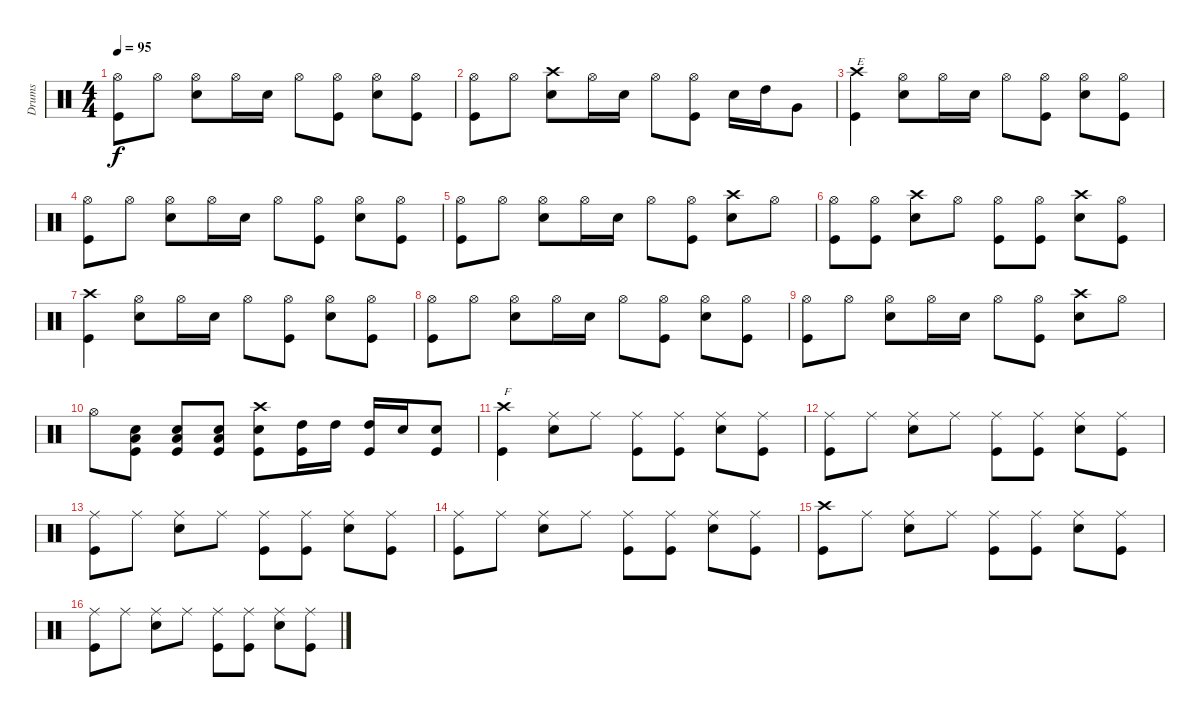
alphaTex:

\track ("Drums" "Drums") {instrument percussion}
\staff {score}
\articulation defaults
\ts (4 4)
\tempo 95
\clef neutral
\ks c
("Hi-Hat (open)" "Kick (hit)").8{dy f} "Hi-Hat (open)".8 ("Hi-Hat (open)" "Electric Snare (hit)").8 "Hi-Hat (open)".16 "Electric Snare (hit)".16 "Hi-Hat (open)".8 ("Hi-Hat (open)" "Kick (hit)").8 ("Hi-Hat (open)" "Electric Snare (hit)").8 ("Hi-Hat (open)" "Kick (hit)").8 |
("Hi-Hat (open)" "Kick (hit)").8 "Hi-Hat (open)".8 ("Crash high (hit)" "Electric Snare (hit)").8 "Hi-Hat (open)".16 "Electric Snare (hit)".16 "Hi-Hat (open)".8 ("Hi-Hat (open)" "Kick (hit)").8 "Electric Snare (hit)".16 "High Tom (hit)".16 "Very Low Tom (hit)".8 |
("Crash high (hit)" "Kick (hit)").4{txt "E"} ("Hi-Hat (open)" "Electric Snare (hit)").8 "Hi-Hat (open)".16 "Electric Snare (hit)".16 "Hi-Hat (open)".8 ("Hi-Hat (open)" "Kick (hit)").8 ("Hi-Hat (open)" "Electric Snare (hit)").8 ("Hi-Hat (open)" "Kick (hit)").8 |
("Hi-Hat (open)" "Kick (hit)").8 "Hi-Hat (open)".8 ("Hi-Hat (open)" "Electric Snare (hit)").8 "Hi-Hat (open)".16 "Electric Snare (hit)".16 "Hi-Hat (open)".8 ("Hi-Hat (open)" "Kick (hit)").8 ("Hi-Hat (open)" "Electric Snare (hit)").8 ("Hi-Hat (open)" "Kick (hit)").8 |
("Hi-Hat (open)" "Kick (hit)").8 "Hi-Hat (open)".8 ("Hi-Hat (open)" "Electric Snare (hit)").8 "Hi-Hat (open)".16 "Electric Snare (hit)".16 "Hi-Hat (open)".8 ("Hi-Hat (open)" "Kick (hit)").8 ("Crash high (hit)" "Electric Snare (hit)").8 "Hi-Hat (open)".8 |
("Hi-Hat (open)" "Kick (hit)").8 ("Hi-Hat (open)" "Kick (hit)").8 ("Crash high (hit)" "Electric Snare (hit)").8 "Hi-Hat (open)".8 ("Hi-Hat (open)" "Kick (hit)").8 ("Hi-Hat (open)" "Kick (hit)").8 ("Crash high (hit)" "Electric Snare (hit)").8 ("Hi-Hat (open)" "Kick (hit)").8 |
("Crash high (hit)" "Kick (hit)").4 ("Hi-Hat (open)" "Electric Snare (hit)").8 "Hi-Hat (open)".16 "Electric Snare (hit)".16 "Hi-Hat (open)".8 ("Hi-Hat (open)" "Kick (hit)").8 ("Hi-Hat (open)" "Electric Snare (hit)").8 ("Hi-Hat (open)" "Kick (hit)").8 |
("Hi-Hat (open)" "Kick (hit)").8 "Hi-Hat (open)".8 ("Hi-Hat (open)" "Electric Snare (hit)").8 "Hi-Hat (open)".16 "Electric Snare (hit)".16 "Hi-Hat (open)".8 ("Hi-Hat (open)" "Kick (hit)").8 ("Hi-Hat (open)" "Electric Snare (hit)").8 ("Hi-Hat (open)" "Kick (hit)").8 |
("Hi-Hat (open)" "Kick (hit)").8 "Hi-Hat (open)".8 ("Hi-Hat (open)" "Electric Snare (hit)").8 "Hi-Hat (open)".16 "Electric Snare (hit)".16 "Hi-Hat (open)".8 ("Hi-Hat (open)" "Kick (hit)").8 ("Crash high (hit)" "Electric Snare (hit)").8 "Hi-Hat (open)".8 |
"Hi-Hat (open)".8 ("Low Floor Tom (hit)" "Electric Snare (hit)" "Kick (hit)").8 ("Low Floor Tom (hit)" "Electric Snare (hit)" "Kick (hit)").8 ("Low Floor Tom (hit)" "Electric Snare (hit)" "Kick (hit)").8 ("Crash high (hit)" "Electric Snare (hit)" "Kick (hit)").8 ("High Tom (hit)" "Kick (hit)").16 "High Tom (hit)".16 ("High Tom (hit)" "Kick (hit)").16 "Electric Snare (hit)".16 ("Electric Snare (hit)" "Kick (hit)").8 |
("Crash high (hit)" "Kick (hit)").4{txt "F"} ("Ride (middle)" "Electric Snare (hit)").8 "Ride (middle)".8 ("Ride (middle)" "Kick (hit)").8 ("Ride (middle)" "Kick (hit)").8 ("Ride (middle)" "Electric Snare (hit)").8 ("Ride (middle)" "Kick (hit)").8 |
("Ride (middle)" "Kick (hit)").8 "Ride (middle)".8 ("Ride (middle)" "Electric Snare (hit)").8 "Ride (middle)".8 ("Ride (middle)" "Kick (hit)").8 ("Ride (middle)" "Kick (hit)").8 ("Ride (middle)" "Electric Snare (hit)").8 ("Ride (middle)" "Kick (hit)").8 |
("Ride (middle)" "Kick (hit)").8 "Ride (middle)".8 ("Ride (middle)" "Electric Snare (hit)").8 "Ride (middle)".8 ("Ride (middle)" "Kick (hit)").8 ("Ride (middle)" "Kick (hit)").8 ("Ride (middle)" "Electric Snare (hit)").8 ("Ride (middle)" "Kick (hit)").8 |
("Ride (middle)" "Kick (hit)").8 "Ride (middle)".8 ("Ride (middle)" "Electric Snare (hit)").8 "Ride (middle)".8 ("Ride (middle)" "Kick (hit)").8 ("Ride (middle)" "Kick (hit)").8 ("Ride (middle)" "Electric Snare (hit)").8 ("Ride (middle)" "Kick (hit)").8 |
("Crash high (hit)" "Kick (hit)").8 "Ride (middle)".8 ("Ride (middle)" "Electric Snare (hit)").8 "Ride (middle)".8 ("Ride (middle)" "Kick (hit)").8 ("Ride (middle)" "Kick (hit)").8 ("Ride (middle)" "Electric Snare (hit)").8 ("Ride (middle)" "Kick (hit)").8 |
("Ride (middle)" "Kick (hit)").8 "Ride (middle)".8 ("Ride (middle)" "Electric Snare (hit)").8 "Ride (middle)".8 ("Ride (middle)" "Kick (hit)").8 ("Ride (middle)" "Kick (hit)").8 ("Ride (middle)" "Electric Snare (hit)").8 ("Ride (middle)" "Kick (hit)").8
